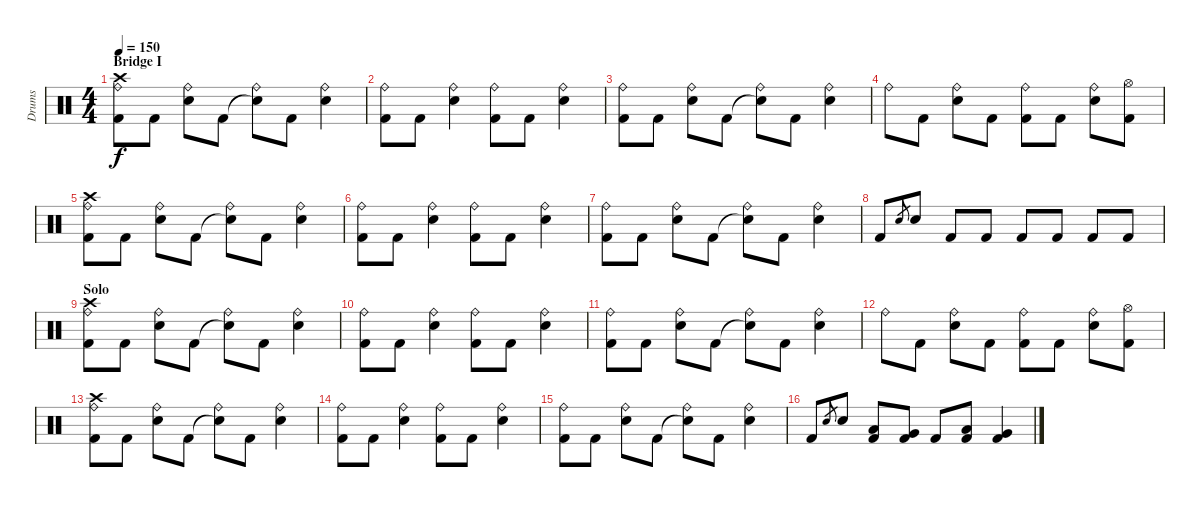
\track ("Drums" "Drums") {instrument percussion}
\staff {score}
\articulation defaults
\ts (4 4)
\section ("" "Bridge I")
\tempo 150
\clef neutral
\ks c
("Kick (hit) 2" "Ride (bell)" "Crash high (hit)").8{dy f} "Kick (hit) 2".8 ("Electric Snare (hit)" "Ride (bell)").8 "Kick (hit) 2".8 ("Snare (hit)"{t} "Ride (bell)").8 "Kick (hit) 2".8 ("Electric Snare (hit)" "Ride (bell)").4 |
("Kick (hit) 2" "Ride (bell)").8 "Kick (hit) 2".8 ("Electric Snare (hit)" "Ride (bell)").4 ("Kick (hit) 2" "Ride (bell)").8 "Kick (hit) 2".8 ("Electric Snare (hit)" "Ride (bell)").4 |
("Kick (hit) 2" "Ride (bell)").8 "Kick (hit) 2".8 ("Electric Snare (hit)" "Ride (bell)").8 "Kick (hit) 2".8 ("Snare (hit)"{t} "Ride (bell)").8 "Kick (hit) 2".8 ("Electric Snare (hit)" "Ride (bell)").4 |
"Ride (bell)".8 "Kick (hit) 2".8 ("Electric Snare (hit)" "Ride (bell)").8 "Kick (hit) 2".8 ("Kick (hit) 2" "Ride (bell)").8 "Kick (hit) 2".8 ("Electric Snare (hit)" "Ride (bell)").8 ("Kick (hit) 2" "Hi-Hat (open)").8 |
("Kick (hit) 2" "Ride (bell)" "Crash high (hit)").8 "Kick (hit) 2".8 ("Electric Snare (hit)" "Ride (bell)").8 "Kick (hit) 2".8 ("Snare (hit)"{t} "Ride (bell)").8 "Kick (hit) 2".8 ("Electric Snare (hit)" "Ride (bell)").4 |
("Kick (hit) 2" "Ride (bell)").8 "Kick (hit) 2".8 ("Electric Snare (hit)" "Ride (bell)").4 ("Kick (hit) 2" "Ride (bell)").8 "Kick (hit) 2".8 ("Electric Snare (hit)" "Ride (bell)").4 |
("Kick (hit) 2" "Ride (bell)").8 "Kick (hit) 2".8 ("Electric Snare (hit)" "Ride (bell)").8 "Kick (hit) 2".8 ("Snare (hit)"{t} "Ride (bell)").8 "Kick (hit) 2".8 ("Electric Snare (hit)" "Ride (bell)").4 |
"Kick (hit) 2".8 "Electric Snare (hit)".8{gr} "Electric Snare (hit)".8 "Kick (hit) 2".8 "Kick (hit) 2".8 "Kick (hit) 2".8 "Kick (hit) 2".8 "Kick (hit) 2".8 "Kick (hit) 2".8 |
\section ("" "Solo")
("Kick (hit) 2" "Ride (bell)" "Crash high (hit)").8 "Kick (hit) 2".8 ("Electric Snare (hit)" "Ride (bell)").8 "Kick (hit) 2".8 ("Snare (hit)"{t} "Ride (bell)").8 "Kick (hit) 2".8 ("Electric Snare (hit)" "Ride (bell)").4 |
("Kick (hit) 2" "Ride (bell)").8 "Kick (hit) 2".8 ("Electric Snare (hit)" "Ride (bell)").4 ("Kick (hit) 2" "Ride (bell)").8 "Kick (hit) 2".8 ("Electric Snare (hit)" "Ride (bell)").4 |
("Kick (hit) 2" "Ride (bell)").8 "Kick (hit) 2".8 ("Electric Snare (hit)" "Ride (bell)").8 "Kick (hit) 2".8 ("Snare (hit)"{t} "Ride (bell)").8 "Kick (hit) 2".8 ("Electric Snare (hit)" "Ride (bell)").4 |
"Ride (bell)".8 "Kick (hit) 2".8 ("Electric Snare (hit)" "Ride (bell)").8 "Kick (hit) 2".8 ("Kick (hit) 2" "Ride (bell)").8 "Kick (hit) 2".8 ("Electric Snare (hit)" "Ride (bell)").8 ("Kick (hit) 2" "Hi-Hat (open)").8 |
("Kick (hit) 2" "Ride (bell)" "Crash high (hit)").8 "Kick (hit) 2".8 ("Electric Snare (hit)" "Ride (bell)").8 "Kick (hit) 2".8 ("Snare (hit)"{t} "Ride (bell)").8 "Kick (hit) 2".8 ("Electric Snare (hit)" "Ride (bell)").4 |
("Kick (hit) 2" "Ride (bell)").8 "Kick (hit) 2".8 ("Electric Snare (hit)" "Ride (bell)").4 ("Kick (hit) 2" "Ride (bell)").8 "Kick (hit) 2".8 ("Electric Snare (hit)" "Ride (bell)").4 |
("Kick (hit) 2" "Ride (bell)").8 "Kick (hit) 2".8 ("Electric Snare (hit)" "Ride (bell)").8 "Kick (hit) 2".8 ("Snare (hit)"{t} "Ride (bell)").8 "Kick (hit) 2".8 ("Electric Snare (hit)" "Ride (bell)").4 |
"Kick (hit) 2".8 "Electric Snare (hit)".8{gr} "Electric Snare (hit)".8 ("Kick (hit) 2" "Low Tom (hit)").8 ("Kick (hit) 2" "Very Low Tom (hit)").8 "Kick (hit) 2".8 ("Kick (hit) 2" "Low Tom (hit)").8 ("Kick (hit) 2" "Very Low Tom (hit)").4
